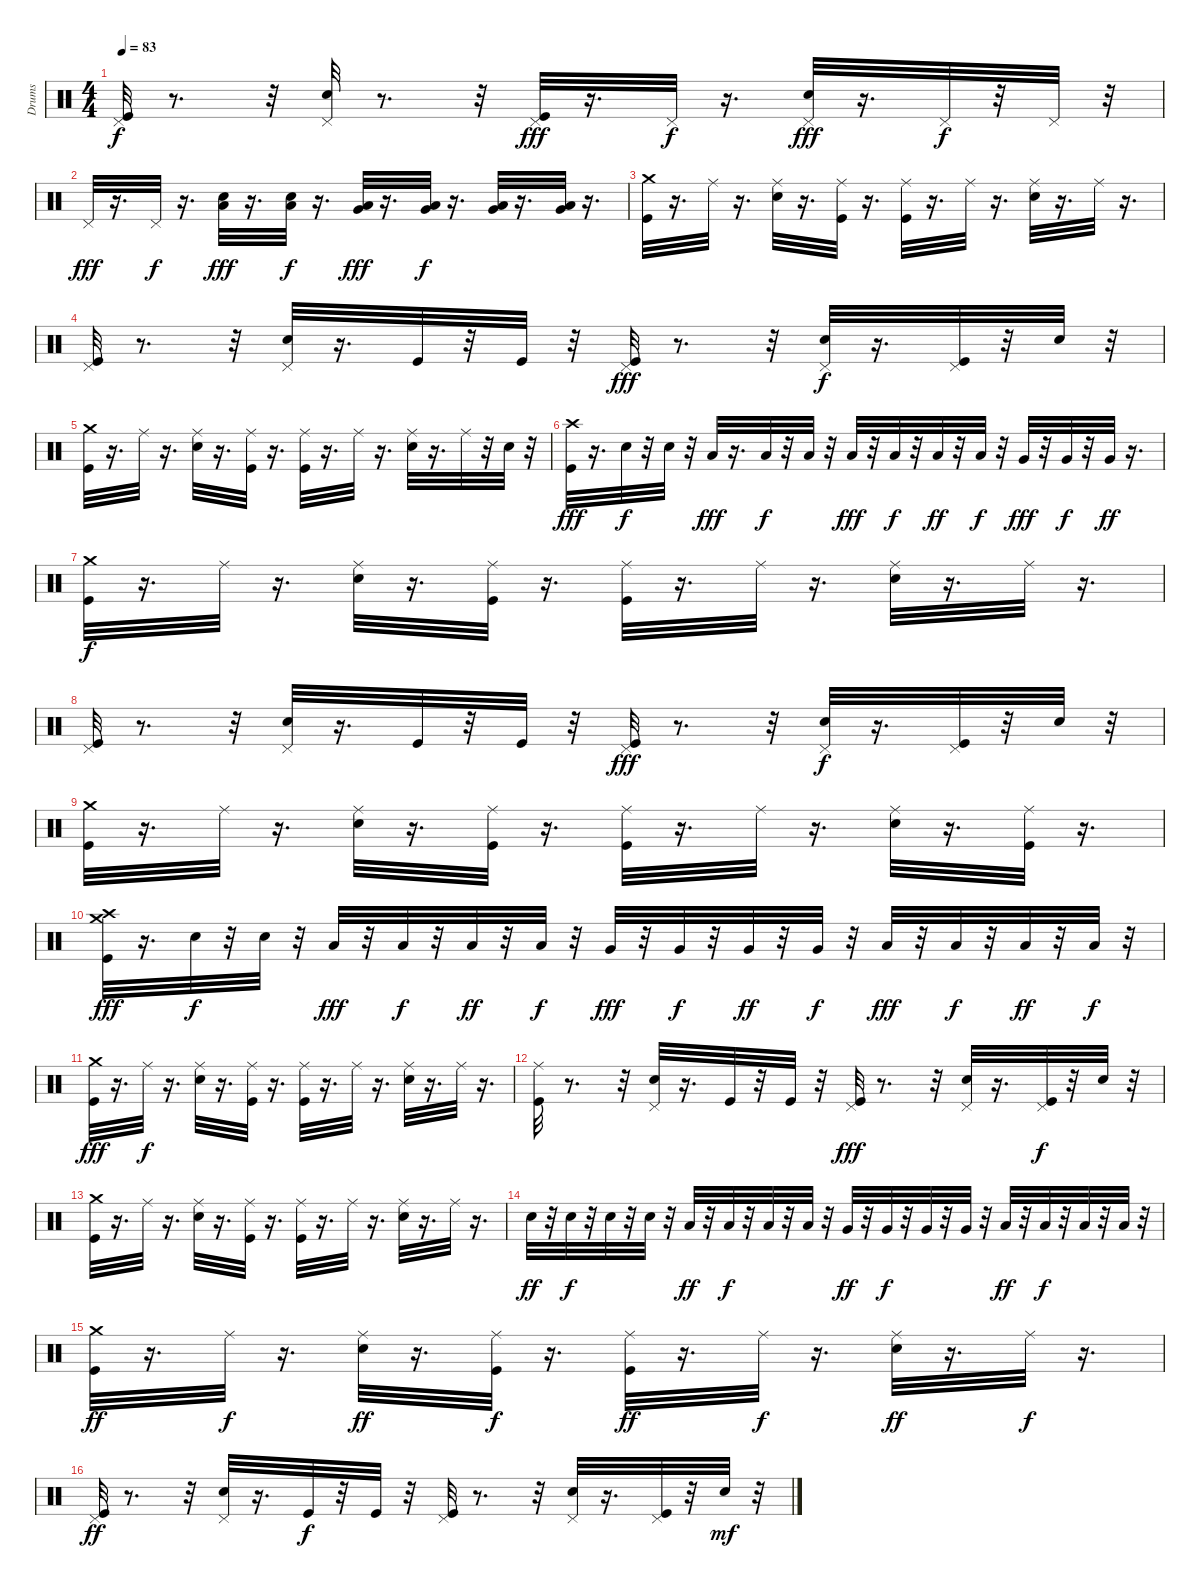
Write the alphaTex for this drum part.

\track ("Drums" "Drums") {instrument percussion}
\staff {score}
\articulation defaults
\ts (4 4)
\tempo 83
\clef neutral
\ks c
("Pedal Hi-Hat (hit)" "Kick (hit)").32{dy f} r.8{d} r.32 ("Pedal Hi-Hat (hit)" "Snare (hit) 2").32 r.8{d} r.32 ("Pedal Hi-Hat (hit)" "Kick (hit)").32{dy fff} r.16{d} "Pedal Hi-Hat (hit)".32{dy f} r.16{d} ("Pedal Hi-Hat (hit)" "Snare (hit) 2").32{dy fff} r.16{d} "Pedal Hi-Hat (hit)".32{dy f} r.32 "Pedal Hi-Hat (hit)".32 r.32 |
"Pedal Hi-Hat (hit)".32{dy fff} r.16{d} "Pedal Hi-Hat (hit)".32{dy f} r.16{d} ("Low Tom (hit)" "Snare (hit) 2").32{dy fff} r.16{d} ("Low Tom (hit)" "Snare (hit) 2").32{dy f} r.16{d} ("Very Low Tom (hit)" "Low Tom (hit)").32{dy fff} r.16{d} ("Very Low Tom (hit)" "Low Tom (hit)").32{dy f} r.16{d} ("Low Floor Tom (hit)" "Very Low Tom (hit)").32 r.16{d} ("Low Floor Tom (hit)" "Very Low Tom (hit)").32 r.16{d} |
("Crash medium (hit)" "Kick (hit)").32 r.16{d} "Ride (middle)".32 r.16{d} ("Ride (middle)" "Snare (hit) 2").32 r.16{d} ("Ride (middle)" "Kick (hit)").32 r.16{d} ("Ride (middle)" "Kick (hit)").32 r.16{d} "Ride (middle)".32 r.16{d} ("Ride (middle)" "Snare (hit) 2").32 r.16{d} "Ride (middle)".32 r.16{d} |
("Pedal Hi-Hat (hit)" "Kick (hit)").32 r.8{d} r.32 ("Pedal Hi-Hat (hit)" "Snare (hit) 2").32 r.16{d} "Kick (hit)".32 r.32 "Kick (hit)".32 r.32 ("Pedal Hi-Hat (hit)" "Kick (hit)").32{dy fff} r.8{d} r.32 ("Pedal Hi-Hat (hit)" "Snare (hit) 2").32{dy f} r.16{d} ("Pedal Hi-Hat (hit)" "Kick (hit)").32 r.32 "Snare (hit) 2".32 r.32 |
("Crash medium (hit)" "Kick (hit)").32 r.16{d} "Ride (middle)".32 r.16{d} ("Ride (middle)" "Snare (hit) 2").32 r.16{d} ("Ride (middle)" "Kick (hit)").32 r.16{d} ("Ride (middle)" "Kick (hit)").32 r.16{d} "Ride (middle)".32 r.16{d} ("Ride (middle)" "Snare (hit) 2").32 r.16{d} "Ride (middle)".32 r.32 "Snare (hit) 2".32 r.32 |
("Crash high (hit)" "Kick (hit)").32{dy fff} r.16{d} "Snare (hit) 2".32{dy f} r.32 "Snare (hit) 2".32 r.32 "Low Tom (hit)".32{dy fff} r.16{d} "Low Tom (hit)".32{dy f} r.32 "Low Tom (hit)".32 r.32 "Low Tom (hit)".32{dy fff} r.32 "Low Tom (hit)".32{dy f} r.32 "Low Tom (hit)".32{dy ff} r.32 "Low Tom (hit)".32{dy f} r.32 "Very Low Tom (hit)".32{dy fff} r.32 "Very Low Tom (hit)".32{dy f} r.32 "Very Low Tom (hit)".32{dy ff} r.16{d} |
("Crash medium (hit)" "Kick (hit)").32{dy f} r.16{d} "Ride (middle)".32 r.16{d} ("Ride (middle)" "Snare (hit) 2").32 r.16{d} ("Ride (middle)" "Kick (hit)").32 r.16{d} ("Ride (middle)" "Kick (hit)").32 r.16{d} "Ride (middle)".32 r.16{d} ("Ride (middle)" "Snare (hit) 2").32 r.16{d} "Ride (middle)".32 r.16{d} |
("Pedal Hi-Hat (hit)" "Kick (hit)").32 r.8{d} r.32 ("Pedal Hi-Hat (hit)" "Snare (hit) 2").32 r.16{d} "Kick (hit)".32 r.32 "Kick (hit)".32 r.32 ("Pedal Hi-Hat (hit)" "Kick (hit)").32{dy fff} r.8{d} r.32 ("Pedal Hi-Hat (hit)" "Snare (hit) 2").32{dy f} r.16{d} ("Pedal Hi-Hat (hit)" "Kick (hit)").32 r.32 "Snare (hit) 2".32 r.32 |
("Crash medium (hit)" "Kick (hit)").32 r.16{d} "Ride (middle)".32 r.16{d} ("Ride (middle)" "Snare (hit) 2").32 r.16{d} ("Ride (middle)" "Kick (hit)").32 r.16{d} ("Ride (middle)" "Kick (hit)").32 r.16{d} "Ride (middle)".32 r.16{d} ("Ride (middle)" "Snare (hit) 2").32 r.16{d} ("Kick (hit)" "Ride (middle)").32 r.16{d} |
("Kick (hit)" "Crash high (hit)" "Crash medium (hit)").32{dy fff} r.16{d} "Snare (hit) 2".32{dy f} r.32 "Snare (hit) 2".32 r.32 "Low Tom (hit)".32{dy fff} r.32 "Low Tom (hit)".32{dy f} r.32 "Low Tom (hit)".32{dy ff} r.32 "Low Tom (hit)".32{dy f} r.32 "Very Low Tom (hit)".32{dy fff} r.32 "Very Low Tom (hit)".32{dy f} r.32 "Very Low Tom (hit)".32{dy ff} r.32 "Very Low Tom (hit)".32{dy f} r.32 "Low Floor Tom (hit)".32{dy fff} r.32 "Low Floor Tom (hit)".32{dy f} r.32 "Low Floor Tom (hit)".32{dy ff} r.32 "Low Floor Tom (hit)".32{dy f} r.32 |
("Crash medium (hit)" "Kick (hit)").32{dy fff} r.16{d} "Ride (middle)".32{dy f} r.16{d} ("Ride (middle)" "Snare (hit) 2").32 r.16{d} ("Ride (middle)" "Kick (hit)").32 r.16{d} ("Ride (middle)" "Kick (hit)").32 r.16{d} "Ride (middle)".32 r.16{d} ("Ride (middle)" "Snare (hit) 2").32 r.16{d} "Ride (middle)".32 r.16{d} |
("Ride (middle)" "Kick (hit)").32 r.8{d} r.32 ("Pedal Hi-Hat (hit)" "Snare (hit) 2").32 r.16{d} "Kick (hit)".32 r.32 "Kick (hit)".32 r.32 ("Pedal Hi-Hat (hit)" "Kick (hit)").32{dy fff} r.8{d} r.32 ("Pedal Hi-Hat (hit)" "Snare (hit) 2").32 r.16{d} ("Pedal Hi-Hat (hit)" "Kick (hit)").32{dy f} r.32 "Snare (hit) 2".32 r.32 |
("Crash medium (hit)" "Kick (hit)").32 r.16{d} "Ride (middle)".32 r.16{d} ("Ride (middle)" "Snare (hit) 2").32 r.16{d} ("Ride (middle)" "Kick (hit)").32 r.16{d} ("Ride (middle)" "Kick (hit)").32 r.16{d} "Ride (middle)".32 r.16{d} ("Ride (middle)" "Snare (hit) 2").32 r.16{d} "Ride (middle)".32 r.16{d} |
"Snare (hit) 2".32{dy ff} r.32 "Snare (hit) 2".32{dy f} r.32 "Snare (hit) 2".32 r.32 "Snare (hit) 2".32 r.32 "Low Tom (hit)".32{dy ff} r.32 "Low Tom (hit)".32{dy f} r.32 "Low Tom (hit)".32 r.32 "Low Tom (hit)".32 r.32 "Very Low Tom (hit)".32{dy ff} r.32 "Very Low Tom (hit)".32{dy f} r.32 "Very Low Tom (hit)".32 r.32 "Very Low Tom (hit)".32 r.32 "Low Floor Tom (hit)".32{dy ff} r.32 "Low Floor Tom (hit)".32{dy f} r.32 "Low Floor Tom (hit)".32 r.32 "Low Floor Tom (hit)".32 r.32 |
("Crash medium (hit)" "Kick (hit)").32{dy ff} r.16{d} "Ride (middle)".32{dy f} r.16{d} ("Ride (middle)" "Snare (hit) 2").32{dy ff} r.16{d} ("Ride (middle)" "Kick (hit)").32{dy f} r.16{d} ("Ride (middle)" "Kick (hit)").32{dy ff} r.16{d} "Ride (middle)".32{dy f} r.16{d} ("Ride (middle)" "Snare (hit) 2").32{dy ff} r.16{d} "Ride (middle)".32{dy f} r.16{d} |
("Pedal Hi-Hat (hit)" "Kick (hit)").32{dy ff} r.8{d} r.32 ("Pedal Hi-Hat (hit)" "Snare (hit) 2").32 r.16{d} "Kick (hit)".32{dy f} r.32 "Kick (hit)".32 r.32 ("Pedal Hi-Hat (hit)" "Kick (hit)").32 r.8{d} r.32 ("Pedal Hi-Hat (hit)" "Snare (hit) 2").32 r.16{d} ("Pedal Hi-Hat (hit)" "Kick (hit)").32 r.32 "Snare (hit) 2".32{dy mf} r.32
